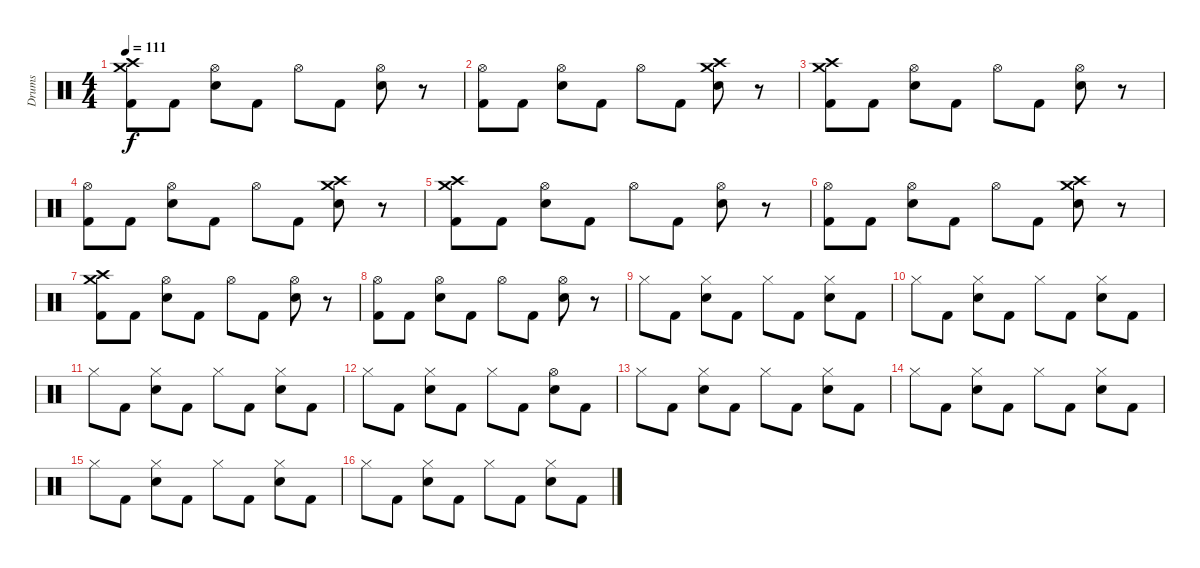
\track ("Drums" "Drums") {instrument percussion}
\staff {score}
\articulation defaults
\ts (4 4)
\tempo 111
\clef neutral
\ks c
("Crash high (hit)" "Crash medium (hit)" "Kick (hit) 2").8{dy f} "Kick (hit) 2".8 ("Hi-Hat (open)" "Snare (hit) 2").8 "Kick (hit) 2".8 "Hi-Hat (open)".8 "Kick (hit) 2".8 ("Hi-Hat (open)" "Snare (hit) 2").8 r.8 |
("Hi-Hat (open)" "Kick (hit) 2").8 "Kick (hit) 2".8 ("Hi-Hat (open)" "Snare (hit) 2").8 "Kick (hit) 2".8 "Hi-Hat (open)".8 "Kick (hit) 2".8 ("Crash high (hit)" "Crash medium (hit)" "Snare (hit) 2").8 r.8 |
("Crash high (hit)" "Crash medium (hit)" "Kick (hit) 2").8 "Kick (hit) 2".8 ("Hi-Hat (open)" "Snare (hit) 2").8 "Kick (hit) 2".8 "Hi-Hat (open)".8 "Kick (hit) 2".8 ("Hi-Hat (open)" "Snare (hit) 2").8 r.8 |
("Hi-Hat (open)" "Kick (hit) 2").8 "Kick (hit) 2".8 ("Hi-Hat (open)" "Snare (hit) 2").8 "Kick (hit) 2".8 "Hi-Hat (open)".8 "Kick (hit) 2".8 ("Crash high (hit)" "Crash medium (hit)" "Snare (hit) 2").8 r.8 |
("Crash high (hit)" "Crash medium (hit)" "Kick (hit) 2").8 "Kick (hit) 2".8 ("Hi-Hat (open)" "Snare (hit) 2").8 "Kick (hit) 2".8 "Hi-Hat (open)".8 "Kick (hit) 2".8 ("Hi-Hat (open)" "Snare (hit) 2").8 r.8 |
("Hi-Hat (open)" "Kick (hit) 2").8 "Kick (hit) 2".8 ("Hi-Hat (open)" "Snare (hit) 2").8 "Kick (hit) 2".8 "Hi-Hat (open)".8 "Kick (hit) 2".8 ("Crash high (hit)" "Crash medium (hit)" "Snare (hit) 2").8 r.8 |
("Crash high (hit)" "Crash medium (hit)" "Kick (hit) 2").8 "Kick (hit) 2".8 ("Hi-Hat (open)" "Snare (hit) 2").8 "Kick (hit) 2".8 "Hi-Hat (open)".8 "Kick (hit) 2".8 ("Hi-Hat (open)" "Snare (hit) 2").8 r.8 |
("Hi-Hat (open)" "Kick (hit) 2").8 "Kick (hit) 2".8 ("Hi-Hat (open)" "Snare (hit) 2").8 "Kick (hit) 2".8 "Hi-Hat (open)".8 "Kick (hit) 2".8 ("Hi-Hat (open)" "Snare (hit) 2").8 r.8 |
"Hi-Hat (closed)".8 "Kick (hit) 2".8 ("Hi-Hat (closed)" "Snare (hit) 2").8 "Kick (hit) 2".8 "Hi-Hat (closed)".8 "Kick (hit) 2".8 ("Hi-Hat (closed)" "Snare (hit) 2").8 "Kick (hit) 2".8 |
"Hi-Hat (closed)".8 "Kick (hit) 2".8 ("Hi-Hat (closed)" "Snare (hit) 2").8 "Kick (hit) 2".8 "Hi-Hat (closed)".8 "Kick (hit) 2".8 ("Hi-Hat (closed)" "Snare (hit) 2").8 "Kick (hit) 2".8 |
"Hi-Hat (closed)".8 "Kick (hit) 2".8 ("Hi-Hat (closed)" "Snare (hit) 2").8 "Kick (hit) 2".8 "Hi-Hat (closed)".8 "Kick (hit) 2".8 ("Hi-Hat (closed)" "Snare (hit) 2").8 "Kick (hit) 2".8 |
"Hi-Hat (closed)".8 "Kick (hit) 2".8 ("Hi-Hat (closed)" "Snare (hit) 2").8 "Kick (hit) 2".8 "Hi-Hat (closed)".8 "Kick (hit) 2".8 ("Hi-Hat (open)" "Snare (hit) 2").8 "Kick (hit) 2".8 |
"Hi-Hat (closed)".8 "Kick (hit) 2".8 ("Hi-Hat (closed)" "Snare (hit) 2").8 "Kick (hit) 2".8 "Hi-Hat (closed)".8 "Kick (hit) 2".8 ("Hi-Hat (closed)" "Snare (hit) 2").8 "Kick (hit) 2".8 |
"Hi-Hat (closed)".8 "Kick (hit) 2".8 ("Hi-Hat (closed)" "Snare (hit) 2").8 "Kick (hit) 2".8 "Hi-Hat (closed)".8 "Kick (hit) 2".8 ("Hi-Hat (closed)" "Snare (hit) 2").8 "Kick (hit) 2".8 |
"Hi-Hat (closed)".8 "Kick (hit) 2".8 ("Hi-Hat (closed)" "Snare (hit) 2").8 "Kick (hit) 2".8 "Hi-Hat (closed)".8 "Kick (hit) 2".8 ("Hi-Hat (closed)" "Snare (hit) 2").8 "Kick (hit) 2".8 |
"Hi-Hat (closed)".8 "Kick (hit) 2".8 ("Hi-Hat (closed)" "Snare (hit) 2").8 "Kick (hit) 2".8 "Hi-Hat (closed)".8 "Kick (hit) 2".8 ("Hi-Hat (closed)" "Snare (hit) 2").8 "Kick (hit) 2".8
